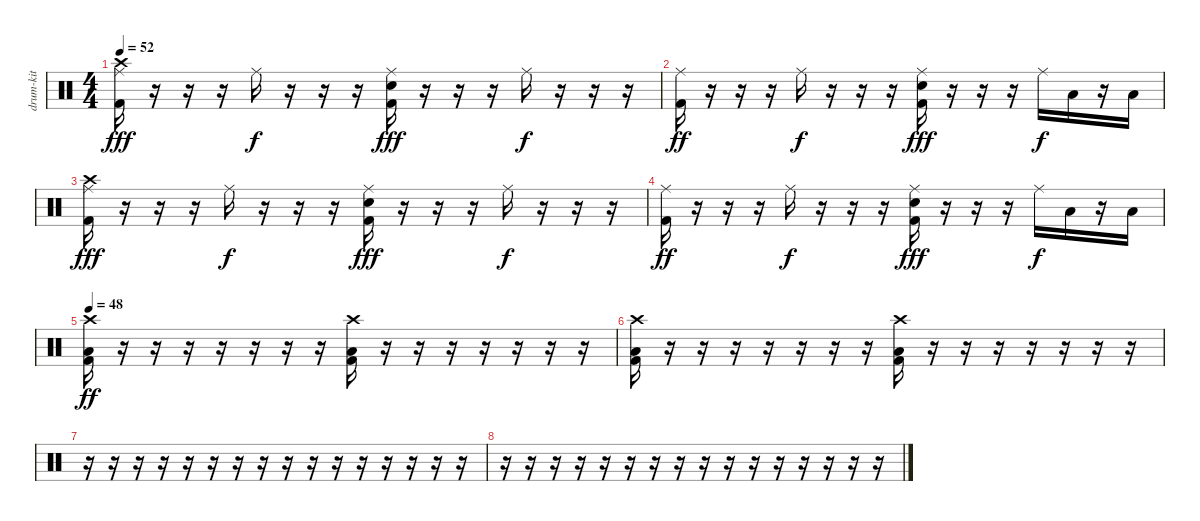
\track ("drum-kit" "drum-kit") {instrument percussion}
\staff {score}
\articulation defaults
\ts (4 4)
\tempo 52
\clef neutral
\ks c
("Ride (middle)" "Crash high (hit)" "Kick (hit) 2").16{dy fff} r.16 r.16 r.16 "Ride (middle)".16{dy f} r.16 r.16 r.16 ("Ride (middle)" "Snare (hit) 2" "Kick (hit) 2").16{dy fff} r.16 r.16 r.16 "Ride (middle)".16{dy f} r.16 r.16 r.16 |
("Ride (middle)" "Kick (hit) 2").16{dy ff} r.16 r.16 r.16 "Ride (middle)".16{dy f} r.16 r.16 r.16 ("Ride (middle)" "Snare (hit) 2" "Kick (hit) 2").16{dy fff} r.16 r.16 r.16 "Ride (middle)".16{dy f} "Low Tom (hit)".16 r.16 "Low Tom (hit)".16 |
("Ride (middle)" "Crash high (hit)" "Kick (hit) 2").16{dy fff} r.16 r.16 r.16 "Ride (middle)".16{dy f} r.16 r.16 r.16 ("Ride (middle)" "Snare (hit) 2" "Kick (hit) 2").16{dy fff} r.16 r.16 r.16 "Ride (middle)".16{dy f} r.16 r.16 r.16 |
("Ride (middle)" "Kick (hit) 2").16{dy ff} r.16 r.16 r.16 "Ride (middle)".16{dy f} r.16 r.16 r.16 ("Ride (middle)" "Snare (hit) 2" "Kick (hit) 2").16{dy fff} r.16 r.16 r.16 "Ride (middle)".16{dy f} "Low Tom (hit)".16 r.16 "Low Tom (hit)".16 |
\tempo 48
("Crash high (hit)" "Low Tom (hit)" "Kick (hit) 2").16{dy ff} r.16 r.16 r.16 r.16 r.16 r.16 r.16 ("Crash high (hit)" "Low Tom (hit)" "Kick (hit) 2").16 r.16 r.16 r.16 r.16 r.16 r.16 r.16 |
("Crash high (hit)" "Low Tom (hit)" "Kick (hit) 2").16 r.16 r.16 r.16 r.16 r.16 r.16 r.16 ("Crash high (hit)" "Low Tom (hit)" "Kick (hit) 2").16 r.16 r.16 r.16 r.16 r.16 r.16 r.16 |
r.16 r.16 r.16 r.16 r.16 r.16 r.16 r.16 r.16 r.16 r.16 r.16 r.16 r.16 r.16 r.16 |
r.16 r.16 r.16 r.16 r.16 r.16 r.16 r.16 r.16 r.16 r.16 r.16 r.16 r.16 r.16 r.16
